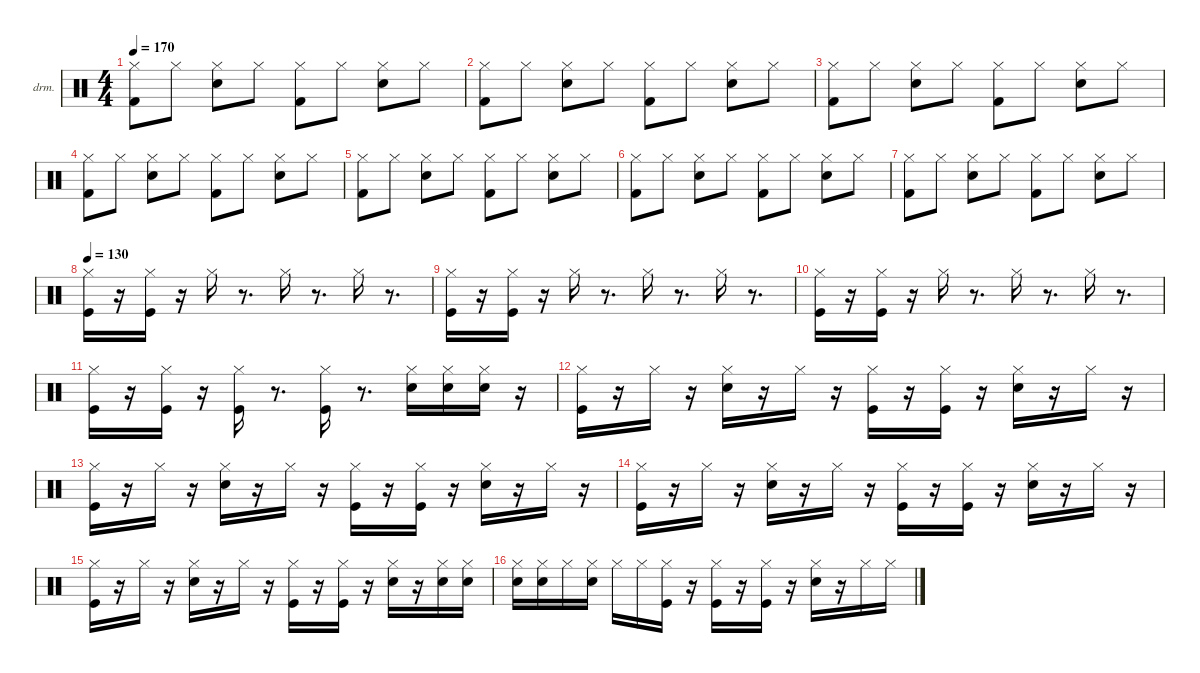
\hideDynamics
\bracketExtendMode nobrackets
\firstSystemTrackNameOrientation horizontal
\otherSystemsTrackNameOrientation horizontal
\track ("韩子钰" "drm.") {instrument percussion}
\staff {score}
\articulation defaults
\ts (4 4)
\tempo 170
\clef neutral
\ks c
("Hi-Hat (closed)" "Kick (hit) 2").8{dy f} "Hi-Hat (closed)".8 ("Hi-Hat (closed)" "Snare (hit) 2").8 "Hi-Hat (closed)".8 ("Hi-Hat (closed)" "Kick (hit) 2").8 "Hi-Hat (closed)".8 ("Hi-Hat (closed)" "Snare (hit) 2").8 "Hi-Hat (closed)".8 |
("Hi-Hat (closed)" "Kick (hit) 2").8 "Hi-Hat (closed)".8 ("Hi-Hat (closed)" "Snare (hit) 2").8 "Hi-Hat (closed)".8 ("Hi-Hat (closed)" "Kick (hit) 2").8 "Hi-Hat (closed)".8 ("Hi-Hat (closed)" "Snare (hit) 2").8 "Hi-Hat (closed)".8 |
("Hi-Hat (closed)" "Kick (hit) 2").8 "Hi-Hat (closed)".8 ("Hi-Hat (closed)" "Snare (hit) 2").8 "Hi-Hat (closed)".8 ("Hi-Hat (closed)" "Kick (hit) 2").8 "Hi-Hat (closed)".8 ("Hi-Hat (closed)" "Snare (hit) 2").8 "Hi-Hat (closed)".8 |
("Hi-Hat (closed)" "Kick (hit) 2").8 "Hi-Hat (closed)".8 ("Hi-Hat (closed)" "Snare (hit) 2").8 "Hi-Hat (closed)".8 ("Hi-Hat (closed)" "Kick (hit) 2").8 "Hi-Hat (closed)".8 ("Hi-Hat (closed)" "Snare (hit) 2").8 "Hi-Hat (closed)".8 |
("Hi-Hat (closed)" "Kick (hit) 2").8 "Hi-Hat (closed)".8 ("Hi-Hat (closed)" "Snare (hit) 2").8 "Hi-Hat (closed)".8 ("Hi-Hat (closed)" "Kick (hit) 2").8 "Hi-Hat (closed)".8 ("Hi-Hat (closed)" "Snare (hit) 2").8 "Hi-Hat (closed)".8 |
("Hi-Hat (closed)" "Kick (hit) 2").8 "Hi-Hat (closed)".8 ("Hi-Hat (closed)" "Snare (hit) 2").8 "Hi-Hat (closed)".8 ("Hi-Hat (closed)" "Kick (hit) 2").8 "Hi-Hat (closed)".8 ("Hi-Hat (closed)" "Snare (hit) 2").8 "Hi-Hat (closed)".8 |
("Hi-Hat (closed)" "Kick (hit) 2").8 "Hi-Hat (closed)".8 ("Hi-Hat (closed)" "Snare (hit) 2").8 "Hi-Hat (closed)".8 ("Hi-Hat (closed)" "Kick (hit) 2").8 "Hi-Hat (closed)".8 ("Hi-Hat (closed)" "Snare (hit) 2").8 "Hi-Hat (closed)".8 |
\tempo 130
("Kick (hit)" "Hi-Hat (closed)").16{dy fff} r.16 ("Kick (hit)" "Hi-Hat (closed)").16 r.16 "Hi-Hat (closed)".16 r.8{d} "Hi-Hat (closed)".16 r.8{d} "Hi-Hat (closed)".16 r.8{d} |
("Kick (hit)" "Hi-Hat (closed)").16 r.16 ("Kick (hit)" "Hi-Hat (closed)").16 r.16 "Hi-Hat (closed)".16 r.8{d} "Hi-Hat (closed)".16 r.8{d} "Hi-Hat (closed)".16 r.8{d} |
("Kick (hit)" "Hi-Hat (closed)").16 r.16 ("Kick (hit)" "Hi-Hat (closed)").16 r.16 "Hi-Hat (closed)".16 r.8{d} "Hi-Hat (closed)".16 r.8{d} "Hi-Hat (closed)".16 r.8{d} |
("Kick (hit)" "Hi-Hat (closed)").16 r.16 ("Kick (hit)" "Hi-Hat (closed)").16 r.16 ("Kick (hit)" "Hi-Hat (closed)").16 r.8{d} ("Kick (hit)" "Hi-Hat (closed)").16 r.8{d} ("Snare (hit) 2" "Hi-Hat (closed)").16 ("Snare (hit) 2" "Hi-Hat (closed)").16 ("Snare (hit) 2" "Hi-Hat (closed)").16 r.16 |
("Kick (hit)" "Hi-Hat (closed)").16 r.16 "Hi-Hat (closed)".16 r.16 ("Snare (hit) 2" "Hi-Hat (closed)").16 r.16 "Hi-Hat (closed)".16 r.16 ("Kick (hit)" "Hi-Hat (closed)").16 r.16 ("Kick (hit)" "Hi-Hat (closed)").16 r.16 ("Snare (hit) 2" "Hi-Hat (closed)").16 r.16 "Hi-Hat (closed)".16 r.16 |
("Kick (hit)" "Hi-Hat (closed)").16 r.16 "Hi-Hat (closed)".16 r.16 ("Snare (hit) 2" "Hi-Hat (closed)").16 r.16 "Hi-Hat (closed)".16 r.16 ("Kick (hit)" "Hi-Hat (closed)").16 r.16 ("Kick (hit)" "Hi-Hat (closed)").16 r.16 ("Snare (hit) 2" "Hi-Hat (closed)").16 r.16 "Hi-Hat (closed)".16 r.16 |
("Kick (hit)" "Hi-Hat (closed)").16 r.16 "Hi-Hat (closed)".16 r.16 ("Snare (hit) 2" "Hi-Hat (closed)").16 r.16 "Hi-Hat (closed)".16 r.16 ("Kick (hit)" "Hi-Hat (closed)").16 r.16 ("Kick (hit)" "Hi-Hat (closed)").16 r.16 ("Snare (hit) 2" "Hi-Hat (closed)").16 r.16 "Hi-Hat (closed)".16 r.16 |
("Kick (hit)" "Hi-Hat (closed)").16 r.16 "Hi-Hat (closed)".16 r.16 ("Snare (hit) 2" "Hi-Hat (closed)").16 r.16 "Hi-Hat (closed)".16 r.16 ("Kick (hit)" "Hi-Hat (closed)").16 r.16 ("Kick (hit)" "Hi-Hat (closed)").16 r.16 ("Snare (hit) 2" "Hi-Hat (closed)").16 r.16 ("Snare (hit) 2" "Hi-Hat (closed)").16 ("Snare (hit) 2" "Hi-Hat (closed)").16 |
("Snare (hit) 2" "Hi-Hat (closed)").16 ("Snare (hit) 2" "Hi-Hat (closed)").16 "Hi-Hat (closed)".16 ("Snare (hit) 2" "Hi-Hat (closed)").16 "Hi-Hat (closed)".16 "Hi-Hat (closed)".16 ("Kick (hit)" "Hi-Hat (closed)").16 r.16 ("Kick (hit)" "Hi-Hat (closed)").16 r.16 ("Kick (hit)" "Hi-Hat (closed)").16 r.16 ("Snare (hit) 2" "Hi-Hat (closed)").16 r.16 "Hi-Hat (closed)".16 "Hi-Hat (closed)".16
